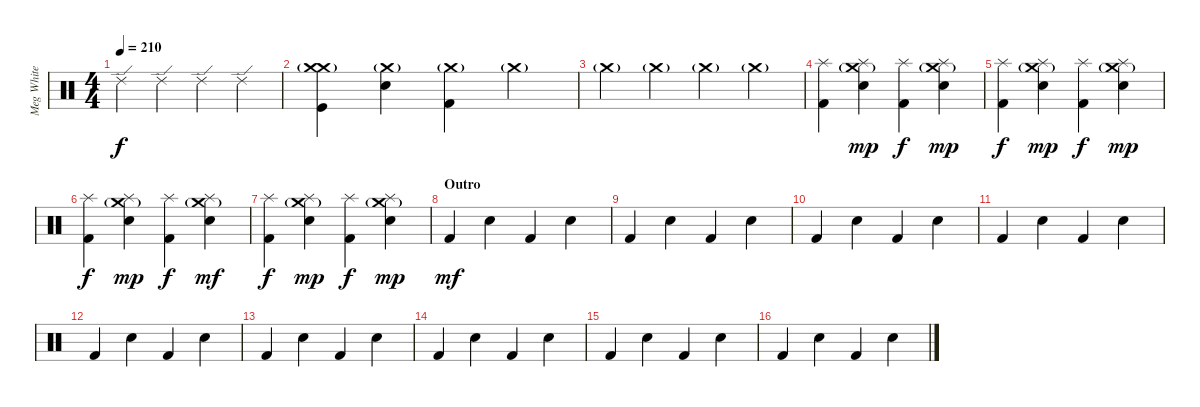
\track ("Meg White (Drums)" "Meg White ") {instrument percussion}
\staff {score}
\articulation defaults
\ts (4 4)
\tempo 210
\clef neutral
\ks c "Ride (edge) 2".4{dy f} "Ride (edge) 2".4 "Ride (edge) 2".4 "Ride (edge) 2".4
|
("Kick (hit)" "Crash medium (hit)" "Crash medium (hit)"{g}).4 ("Electric Snare (hit)" "Crash medium (hit)"{g}).4 ("Kick (hit) 2" "Crash medium (hit)"{g}).4 "Crash medium (hit)"{g}.4 |
"Crash medium (hit)"{g}.4 "Crash medium (hit)"{g}.4 "Crash medium (hit)"{g}.4 "Crash medium (hit)"{g}.4 |
("Kick (hit) 2" "Splash (hit)").4 ("Electric Snare (hit)" "Splash (hit)" "Crash medium (hit)"{g}).4{dy mp} ("Kick (hit) 2" "Splash (hit)").4{dy f} ("Electric Snare (hit)" "Splash (hit)" "Crash medium (hit)"{g}).4{dy mp} |
("Kick (hit) 2" "Splash (hit)").4{dy f} ("Electric Snare (hit)" "Splash (hit)" "Crash medium (hit)"{g}).4{dy mp} ("Kick (hit) 2" "Splash (hit)").4{dy f} ("Electric Snare (hit)" "Splash (hit)" "Crash medium (hit)"{g}).4{dy mp} |
("Kick (hit) 2" "Splash (hit)").4{dy f} ("Electric Snare (hit)" "Splash (hit)" "Crash medium (hit)"{g}).4{dy mp} ("Kick (hit) 2" "Splash (hit)").4{dy f} ("Electric Snare (hit)" "Splash (hit)" "Crash medium (hit)"{g}).4{dy mf} |
("Kick (hit) 2" "Splash (hit)").4{dy f} ("Electric Snare (hit)" "Splash (hit)" "Crash medium (hit)"{g}).4{dy mp} ("Kick (hit) 2" "Splash (hit)").4{dy f} ("Electric Snare (hit)" "Splash (hit)" "Crash medium (hit)"{g}).4{dy mp} |
\section ("" "Outro")
"Kick (hit) 2".4{dy mf} "Electric Snare (hit)".4 "Kick (hit) 2".4 "Electric Snare (hit)".4 |
"Kick (hit) 2".4 "Electric Snare (hit)".4 "Kick (hit) 2".4 "Electric Snare (hit)".4 |
"Kick (hit) 2".4 "Electric Snare (hit)".4 "Kick (hit) 2".4 "Electric Snare (hit)".4 |
"Kick (hit) 2".4 "Electric Snare (hit)".4 "Kick (hit) 2".4 "Electric Snare (hit)".4 |
"Kick (hit) 2".4 "Electric Snare (hit)".4 "Kick (hit) 2".4 "Electric Snare (hit)".4 |
"Kick (hit) 2".4 "Electric Snare (hit)".4 "Kick (hit) 2".4 "Electric Snare (hit)".4 |
"Kick (hit) 2".4 "Electric Snare (hit)".4 "Kick (hit) 2".4 "Electric Snare (hit)".4 |
"Kick (hit) 2".4 "Electric Snare (hit)".4 "Kick (hit) 2".4 "Electric Snare (hit)".4 |
"Kick (hit) 2".4 "Electric Snare (hit)".4 "Kick (hit) 2".4 "Electric Snare (hit)".4
